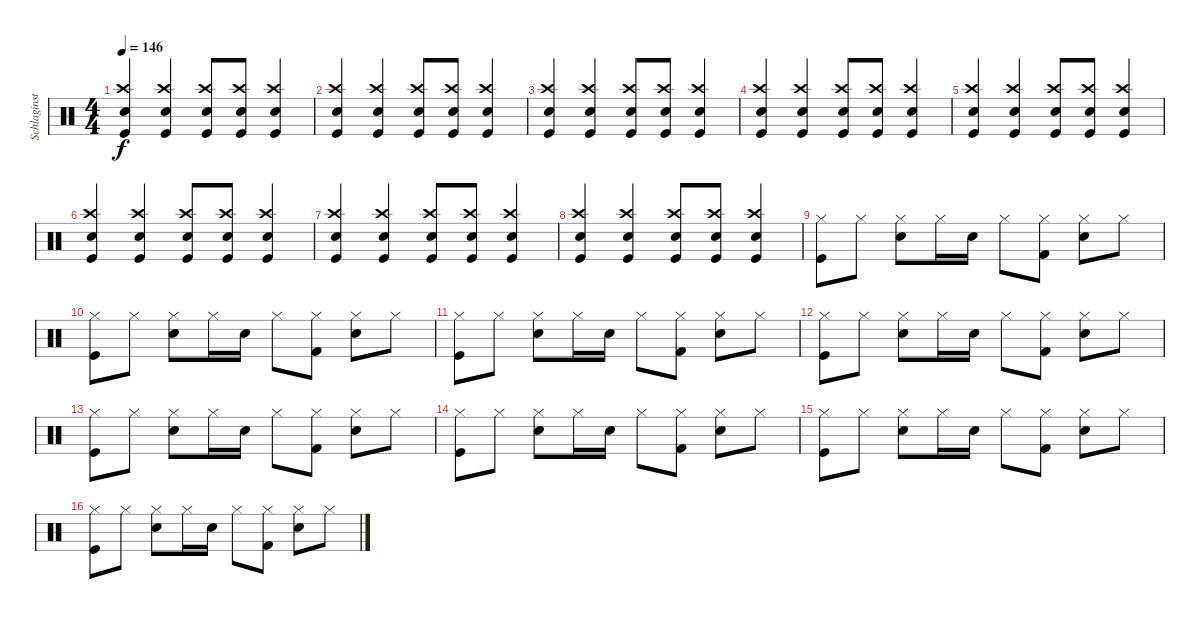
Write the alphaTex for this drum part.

\track ("Schlaginstrumente - Auswahl" "Schlaginst") {instrument percussion}
\staff {score}
\articulation defaults
\ts (4 4)
\tempo 146
\clef neutral
\ks c
("Snare (hit) 2" "Crash high (hit)" "Kick (hit)").4{dy f} ("Snare (hit) 2" "Crash high (hit)" "Kick (hit)").4 ("Snare (hit) 2" "Crash high (hit)" "Kick (hit)").8 ("Snare (hit) 2" "Crash high (hit)" "Kick (hit)").8 ("Snare (hit) 2" "Crash high (hit)" "Kick (hit)").4 |
("Snare (hit) 2" "Crash high (hit)" "Kick (hit)").4 ("Snare (hit) 2" "Crash high (hit)" "Kick (hit)").4 ("Snare (hit) 2" "Crash high (hit)" "Kick (hit)").8 ("Snare (hit) 2" "Crash high (hit)" "Kick (hit)").8 ("Snare (hit) 2" "Crash high (hit)" "Kick (hit)").4 |
("Snare (hit) 2" "Crash high (hit)" "Kick (hit)").4 ("Snare (hit) 2" "Crash high (hit)" "Kick (hit)").4 ("Snare (hit) 2" "Crash high (hit)" "Kick (hit)").8 ("Snare (hit) 2" "Crash high (hit)" "Kick (hit)").8 ("Snare (hit) 2" "Crash high (hit)" "Kick (hit)").4 |
("Snare (hit) 2" "Crash high (hit)" "Kick (hit)").4 ("Snare (hit) 2" "Crash high (hit)" "Kick (hit)").4 ("Snare (hit) 2" "Crash high (hit)" "Kick (hit)").8 ("Snare (hit) 2" "Crash high (hit)" "Kick (hit)").8 ("Snare (hit) 2" "Crash high (hit)" "Kick (hit)").4 |
("Snare (hit) 2" "Crash high (hit)" "Kick (hit)").4 ("Snare (hit) 2" "Crash high (hit)" "Kick (hit)").4 ("Snare (hit) 2" "Crash high (hit)" "Kick (hit)").8 ("Snare (hit) 2" "Crash high (hit)" "Kick (hit)").8 ("Snare (hit) 2" "Crash high (hit)" "Kick (hit)").4 |
("Snare (hit) 2" "Crash high (hit)" "Kick (hit)").4 ("Snare (hit) 2" "Crash high (hit)" "Kick (hit)").4 ("Snare (hit) 2" "Crash high (hit)" "Kick (hit)").8 ("Snare (hit) 2" "Crash high (hit)" "Kick (hit)").8 ("Snare (hit) 2" "Crash high (hit)" "Kick (hit)").4 |
("Snare (hit) 2" "Crash high (hit)" "Kick (hit)").4 ("Snare (hit) 2" "Crash high (hit)" "Kick (hit)").4 ("Snare (hit) 2" "Crash high (hit)" "Kick (hit)").8 ("Snare (hit) 2" "Crash high (hit)" "Kick (hit)").8 ("Snare (hit) 2" "Crash high (hit)" "Kick (hit)").4 |
("Snare (hit) 2" "Crash high (hit)" "Kick (hit)").4 ("Snare (hit) 2" "Crash high (hit)" "Kick (hit)").4 ("Snare (hit) 2" "Crash high (hit)" "Kick (hit)").8 ("Snare (hit) 2" "Crash high (hit)" "Kick (hit)").8 ("Snare (hit) 2" "Crash high (hit)" "Kick (hit)").4 |
("Hi-Hat (closed)" "Kick (hit)").8 "Hi-Hat (closed)".8 ("Hi-Hat (closed)" "Snare (hit) 2").8 "Hi-Hat (closed)".16 "Snare (hit) 2".16 "Hi-Hat (closed)".8 ("Hi-Hat (closed)" "Kick (hit) 2").8 ("Hi-Hat (closed)" "Snare (hit) 2").8 "Hi-Hat (closed)".8 |
("Hi-Hat (closed)" "Kick (hit)").8 "Hi-Hat (closed)".8 ("Hi-Hat (closed)" "Snare (hit) 2").8 "Hi-Hat (closed)".16 "Snare (hit) 2".16 "Hi-Hat (closed)".8 ("Hi-Hat (closed)" "Kick (hit) 2").8 ("Hi-Hat (closed)" "Snare (hit) 2").8 "Hi-Hat (closed)".8 |
("Hi-Hat (closed)" "Kick (hit)").8 "Hi-Hat (closed)".8 ("Hi-Hat (closed)" "Snare (hit) 2").8 "Hi-Hat (closed)".16 "Snare (hit) 2".16 "Hi-Hat (closed)".8 ("Hi-Hat (closed)" "Kick (hit) 2").8 ("Hi-Hat (closed)" "Snare (hit) 2").8 "Hi-Hat (closed)".8 |
("Hi-Hat (closed)" "Kick (hit)").8 "Hi-Hat (closed)".8 ("Hi-Hat (closed)" "Snare (hit) 2").8 "Hi-Hat (closed)".16 "Snare (hit) 2".16 "Hi-Hat (closed)".8 ("Hi-Hat (closed)" "Kick (hit) 2").8 ("Hi-Hat (closed)" "Snare (hit) 2").8 "Hi-Hat (closed)".8 |
("Hi-Hat (closed)" "Kick (hit)").8 "Hi-Hat (closed)".8 ("Hi-Hat (closed)" "Snare (hit) 2").8 "Hi-Hat (closed)".16 "Snare (hit) 2".16 "Hi-Hat (closed)".8 ("Hi-Hat (closed)" "Kick (hit) 2").8 ("Hi-Hat (closed)" "Snare (hit) 2").8 "Hi-Hat (closed)".8 |
("Hi-Hat (closed)" "Kick (hit)").8 "Hi-Hat (closed)".8 ("Hi-Hat (closed)" "Snare (hit) 2").8 "Hi-Hat (closed)".16 "Snare (hit) 2".16 "Hi-Hat (closed)".8 ("Hi-Hat (closed)" "Kick (hit) 2").8 ("Hi-Hat (closed)" "Snare (hit) 2").8 "Hi-Hat (closed)".8 |
("Hi-Hat (closed)" "Kick (hit)").8 "Hi-Hat (closed)".8 ("Hi-Hat (closed)" "Snare (hit) 2").8 "Hi-Hat (closed)".16 "Snare (hit) 2".16 "Hi-Hat (closed)".8 ("Hi-Hat (closed)" "Kick (hit) 2").8 ("Hi-Hat (closed)" "Snare (hit) 2").8 "Hi-Hat (closed)".8 |
("Hi-Hat (closed)" "Kick (hit)").8 "Hi-Hat (closed)".8 ("Hi-Hat (closed)" "Snare (hit) 2").8 "Hi-Hat (closed)".16 "Snare (hit) 2".16 "Hi-Hat (closed)".8 ("Hi-Hat (closed)" "Kick (hit) 2").8 ("Hi-Hat (closed)" "Snare (hit) 2").8 "Hi-Hat (closed)".8
